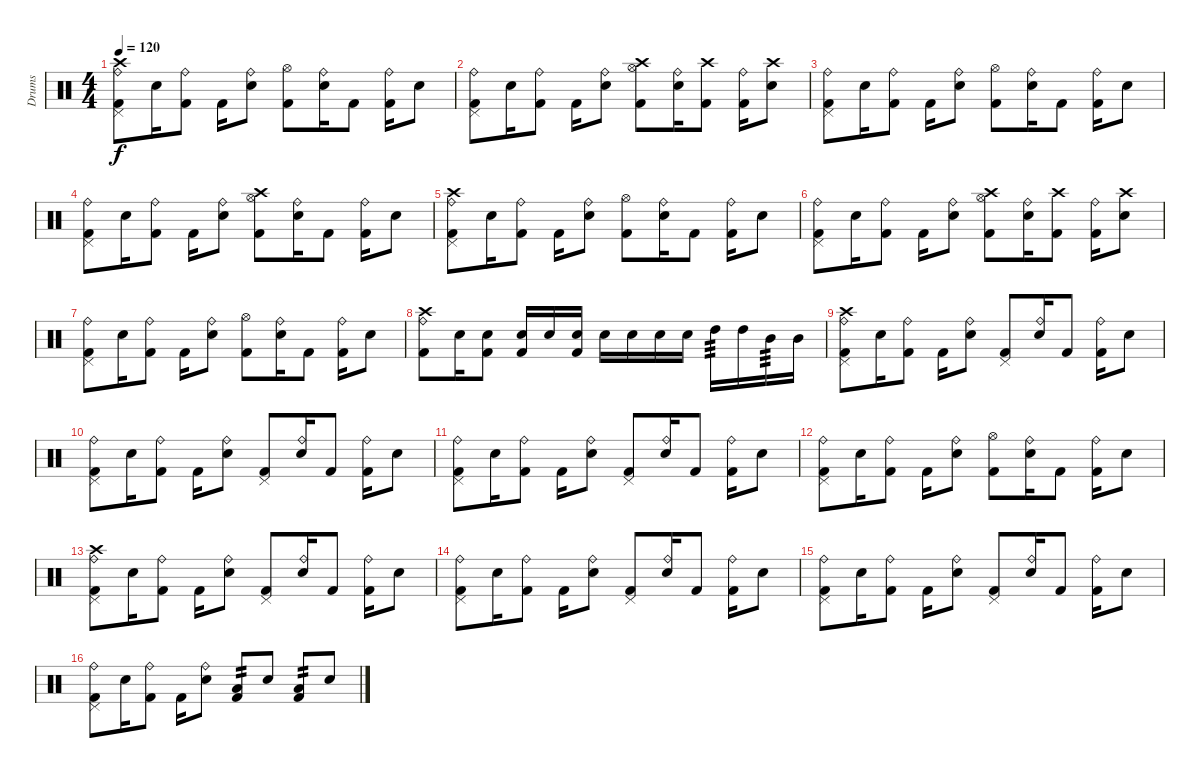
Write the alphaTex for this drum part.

\track ("Drums" "Drums") {instrument percussion}
\staff {score}
\articulation defaults
\ts (4 4)
\tempo 120
\clef neutral
\ks c
("Ride (bell)" "Pedal Hi-Hat (hit)" "Crash high (hit)" "Kick (hit) 2").8{dy f} "Electric Snare (hit)".16 ("Ride (bell)" "Kick (hit) 2").8 "Kick (hit) 2".16 ("Ride (bell)" "Electric Snare (hit)").8 ("Hi-Hat (open)" "Kick (hit) 2").8 ("Ride (bell)" "Electric Snare (hit)").16 "Kick (hit) 2".8 ("Ride (bell)" "Kick (hit) 2").16 "Electric Snare (hit)".8 |
("Ride (bell)" "Pedal Hi-Hat (hit)" "Kick (hit) 2").8 "Electric Snare (hit)".16 ("Ride (bell)" "Kick (hit) 2").8 "Kick (hit) 2".16 ("Ride (bell)" "Electric Snare (hit)").8 ("Hi-Hat (open)" "Crash high (hit)" "Kick (hit) 2").8 ("Ride (bell)" "Electric Snare (hit)").16 ("Crash high (hit)" "Kick (hit) 2").8 ("Ride (bell)" "Kick (hit) 2").16 ("Electric Snare (hit)" "Crash high (hit)").8 |
("Ride (bell)" "Pedal Hi-Hat (hit)" "Kick (hit) 2").8 "Electric Snare (hit)".16 ("Ride (bell)" "Kick (hit) 2").8 "Kick (hit) 2".16 ("Ride (bell)" "Electric Snare (hit)").8 ("Hi-Hat (open)" "Kick (hit) 2").8 ("Ride (bell)" "Electric Snare (hit)").16 "Kick (hit) 2".8 ("Ride (bell)" "Kick (hit) 2").16 "Electric Snare (hit)".8 |
("Ride (bell)" "Pedal Hi-Hat (hit)" "Kick (hit) 2").8 "Electric Snare (hit)".16 ("Ride (bell)" "Kick (hit) 2").8 "Kick (hit) 2".16 ("Ride (bell)" "Electric Snare (hit)").8 ("Hi-Hat (open)" "Crash high (hit)" "Kick (hit) 2").8 ("Ride (bell)" "Electric Snare (hit)").16 "Kick (hit) 2".8 ("Ride (bell)" "Kick (hit) 2").16 "Electric Snare (hit)".8 |
("Ride (bell)" "Pedal Hi-Hat (hit)" "Crash high (hit)" "Kick (hit) 2").8 "Electric Snare (hit)".16 ("Ride (bell)" "Kick (hit) 2").8 "Kick (hit) 2".16 ("Ride (bell)" "Electric Snare (hit)").8 ("Hi-Hat (open)" "Kick (hit) 2").8 ("Ride (bell)" "Electric Snare (hit)").16 "Kick (hit) 2".8 ("Ride (bell)" "Kick (hit) 2").16 "Electric Snare (hit)".8 |
("Ride (bell)" "Pedal Hi-Hat (hit)" "Kick (hit) 2").8 "Electric Snare (hit)".16 ("Ride (bell)" "Kick (hit) 2").8 "Kick (hit) 2".16 ("Ride (bell)" "Electric Snare (hit)").8 ("Hi-Hat (open)" "Crash high (hit)" "Kick (hit) 2").8 ("Ride (bell)" "Electric Snare (hit)").16 ("Crash high (hit)" "Kick (hit) 2").8 ("Ride (bell)" "Kick (hit) 2").16 ("Electric Snare (hit)" "Crash high (hit)").8 |
("Ride (bell)" "Pedal Hi-Hat (hit)" "Kick (hit) 2").8 "Electric Snare (hit)".16 ("Ride (bell)" "Kick (hit) 2").8 "Kick (hit) 2".16 ("Ride (bell)" "Electric Snare (hit)").8 ("Hi-Hat (open)" "Kick (hit) 2").8 ("Ride (bell)" "Electric Snare (hit)").16 "Kick (hit) 2".8 ("Ride (bell)" "Kick (hit) 2").16 "Electric Snare (hit)".8 |
("Ride (bell)" "Crash high (hit)" "Kick (hit) 2").8 "Electric Snare (hit)".16 ("Electric Snare (hit)" "Kick (hit) 2").8 ("Electric Snare (hit)" "Kick (hit) 2").16 "Electric Snare (hit)".16 ("Electric Snare (hit)" "Kick (hit) 2").16 "Electric Snare (hit)".16 "Electric Snare (hit)".16 "Electric Snare (hit)".16 "Electric Snare (hit)".16 "High Tom (hit)".16{tp 3} "High Tom (hit)".16 "Mid Tom (hit)".16{tp 3} "Mid Tom (hit)".16 |
("Ride (bell)" "Pedal Hi-Hat (hit)" "Crash high (hit)" "Kick (hit) 2").8 "Electric Snare (hit)".16 ("Ride (bell)" "Kick (hit) 2").8 "Kick (hit) 2".16 ("Ride (bell)" "Electric Snare (hit)").8 ("Pedal Hi-Hat (hit)" "Kick (hit) 2").8 ("Ride (bell)" "Electric Snare (hit)").16 "Kick (hit) 2".8 ("Ride (bell)" "Kick (hit) 2").16 "Electric Snare (hit)".8 |
("Ride (bell)" "Pedal Hi-Hat (hit)" "Kick (hit) 2").8 "Electric Snare (hit)".16 ("Ride (bell)" "Kick (hit) 2").8 "Kick (hit) 2".16 ("Ride (bell)" "Electric Snare (hit)").8 ("Pedal Hi-Hat (hit)" "Kick (hit) 2").8 ("Ride (bell)" "Electric Snare (hit)").16 "Kick (hit) 2".8 ("Ride (bell)" "Kick (hit) 2").16 "Electric Snare (hit)".8 |
("Ride (bell)" "Pedal Hi-Hat (hit)" "Kick (hit) 2").8 "Electric Snare (hit)".16 ("Ride (bell)" "Kick (hit) 2").8 "Kick (hit) 2".16 ("Ride (bell)" "Electric Snare (hit)").8 ("Pedal Hi-Hat (hit)" "Kick (hit) 2").8 ("Ride (bell)" "Electric Snare (hit)").16 "Kick (hit) 2".8 ("Ride (bell)" "Kick (hit) 2").16 "Electric Snare (hit)".8 |
("Ride (bell)" "Pedal Hi-Hat (hit)" "Kick (hit) 2").8 "Electric Snare (hit)".16 ("Ride (bell)" "Kick (hit) 2").8 "Kick (hit) 2".16 ("Ride (bell)" "Electric Snare (hit)").8 ("Hi-Hat (open)" "Kick (hit) 2").8 ("Ride (bell)" "Electric Snare (hit)").16 "Kick (hit) 2".8 ("Ride (bell)" "Kick (hit) 2").16 "Electric Snare (hit)".8 |
("Ride (bell)" "Pedal Hi-Hat (hit)" "Crash high (hit)" "Kick (hit) 2").8 "Electric Snare (hit)".16 ("Ride (bell)" "Kick (hit) 2").8 "Kick (hit) 2".16 ("Ride (bell)" "Electric Snare (hit)").8 ("Pedal Hi-Hat (hit)" "Kick (hit) 2").8 ("Ride (bell)" "Electric Snare (hit)").16 "Kick (hit) 2".8 ("Ride (bell)" "Kick (hit) 2").16 "Electric Snare (hit)".8 |
("Ride (bell)" "Pedal Hi-Hat (hit)" "Kick (hit) 2").8 "Electric Snare (hit)".16 ("Ride (bell)" "Kick (hit) 2").8 "Kick (hit) 2".16 ("Ride (bell)" "Electric Snare (hit)").8 ("Pedal Hi-Hat (hit)" "Kick (hit) 2").8 ("Ride (bell)" "Electric Snare (hit)").16 "Kick (hit) 2".8 ("Ride (bell)" "Kick (hit) 2").16 "Electric Snare (hit)".8 |
("Ride (bell)" "Pedal Hi-Hat (hit)" "Kick (hit) 2").8 "Electric Snare (hit)".16 ("Ride (bell)" "Kick (hit) 2").8 "Kick (hit) 2".16 ("Ride (bell)" "Electric Snare (hit)").8 ("Pedal Hi-Hat (hit)" "Kick (hit) 2").8 ("Ride (bell)" "Electric Snare (hit)").16 "Kick (hit) 2".8 ("Ride (bell)" "Kick (hit) 2").16 "Electric Snare (hit)".8 |
("Ride (bell)" "Pedal Hi-Hat (hit)" "Kick (hit) 2").8 "Electric Snare (hit)".16 ("Ride (bell)" "Kick (hit) 2").8 "Kick (hit) 2".16 ("Ride (bell)" "Electric Snare (hit)").8 ("Low Floor Tom (hit)" "Kick (hit) 2").8{tp 2} "Electric Snare (hit)".8 ("Low Floor Tom (hit)" "Kick (hit) 2").8{tp 2} "Electric Snare (hit)".8
